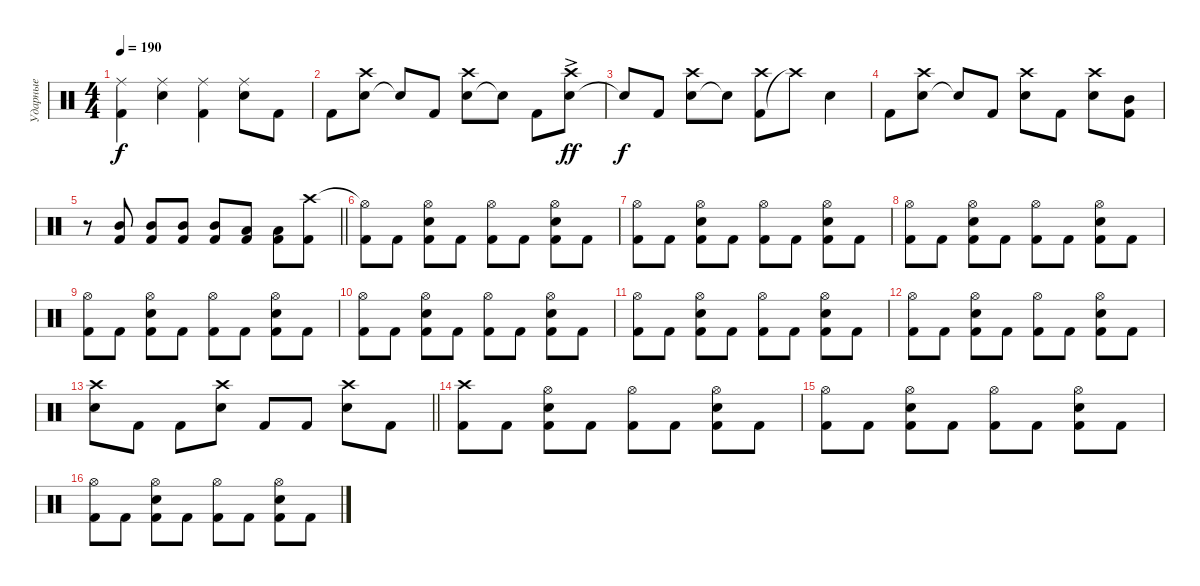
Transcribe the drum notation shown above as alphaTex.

\track ("Ударные" "Ударные") {instrument percussion}
\staff
\articulation defaults
\ts (4 4)
\tempo 190
\clef neutral
\ks c
("Kick (hit) 2" "Ride (middle)").4{dy f} ("Snare (hit) 2" "Ride (middle)").4 ("Kick (hit) 2" "Ride (middle)").4 ("Snare (hit) 2" "Ride (middle)").8 "Kick (hit) 2".8 |
"Kick (hit) 2".8 ("Snare (hit) 2" "Crash high (hit)").8 "Snare (hit)"{t}.8 "Kick (hit) 2".8 ("Snare (hit) 2" "Crash high (hit)").8 "Snare (hit)"{t}.8 "Kick (hit) 2".8 ("Snare (hit) 2" "Crash high (hit)"{ac}).8{dy ff} |
"Snare (hit)"{t}.8{dy f} "Kick (hit) 2".8 ("Snare (hit) 2" "Crash high (hit)").8 "Snare (hit)"{t}.8 ("Kick (hit) 2" "Crash high (hit)").8 "Crash high (hit)"{t}.8 "Snare (hit) 2".4 |
"Kick (hit) 2".8 ("Snare (hit) 2" "Crash high (hit)").8 "Snare (hit)"{t}.8 "Kick (hit) 2".8 ("Snare (hit) 2" "Crash high (hit)").8 "Kick (hit) 2".8 ("Snare (hit) 2" "Crash high (hit)").8 ("Kick (hit) 2" "Mid Tom (hit)").8 |
\barLineRight lightlight
r.8 ("Kick (hit) 2" "Mid Tom (hit)").8 ("Kick (hit) 2" "Mid Tom (hit)").8 ("Kick (hit) 2" "Mid Tom (hit)").8 ("Kick (hit) 2" "Mid Tom (hit)").8 ("Kick (hit) 2" "Low Tom (hit)").8 ("Kick (hit) 2" "Low Tom (hit)").8 ("Kick (hit) 2" "Crash high (hit)").8 |
("Kick (hit) 2" "Hi-Hat (open)"{t}).8 "Kick (hit) 2".8 ("Kick (hit) 2" "Snare (hit) 2" "Hi-Hat (open)").8 "Kick (hit) 2".8 ("Kick (hit) 2" "Hi-Hat (open)").8 "Kick (hit) 2".8 ("Kick (hit) 2" "Snare (hit) 2" "Hi-Hat (open)").8 "Kick (hit) 2".8 |
("Kick (hit) 2" "Hi-Hat (open)").8 "Kick (hit) 2".8 ("Kick (hit) 2" "Snare (hit) 2" "Hi-Hat (open)").8 "Kick (hit) 2".8 ("Kick (hit) 2" "Hi-Hat (open)").8 "Kick (hit) 2".8 ("Kick (hit) 2" "Snare (hit) 2" "Hi-Hat (open)").8 "Kick (hit) 2".8 |
("Kick (hit) 2" "Hi-Hat (open)").8 "Kick (hit) 2".8 ("Kick (hit) 2" "Snare (hit) 2" "Hi-Hat (open)").8 "Kick (hit) 2".8 ("Kick (hit) 2" "Hi-Hat (open)").8 "Kick (hit) 2".8 ("Kick (hit) 2" "Snare (hit) 2" "Hi-Hat (open)").8 "Kick (hit) 2".8 |
("Kick (hit) 2" "Hi-Hat (open)").8 "Kick (hit) 2".8 ("Kick (hit) 2" "Snare (hit) 2" "Hi-Hat (open)").8 "Kick (hit) 2".8 ("Kick (hit) 2" "Hi-Hat (open)").8 "Kick (hit) 2".8 ("Kick (hit) 2" "Snare (hit) 2" "Hi-Hat (open)").8 "Kick (hit) 2".8 |
("Kick (hit) 2" "Hi-Hat (open)").8 "Kick (hit) 2".8 ("Kick (hit) 2" "Snare (hit) 2" "Hi-Hat (open)").8 "Kick (hit) 2".8 ("Kick (hit) 2" "Hi-Hat (open)").8 "Kick (hit) 2".8 ("Kick (hit) 2" "Snare (hit) 2" "Hi-Hat (open)").8 "Kick (hit) 2".8 |
("Kick (hit) 2" "Hi-Hat (open)").8 "Kick (hit) 2".8 ("Kick (hit) 2" "Snare (hit) 2" "Hi-Hat (open)").8 "Kick (hit) 2".8 ("Kick (hit) 2" "Hi-Hat (open)").8 "Kick (hit) 2".8 ("Kick (hit) 2" "Snare (hit) 2" "Hi-Hat (open)").8 "Kick (hit) 2".8 |
("Kick (hit) 2" "Hi-Hat (open)").8 "Kick (hit) 2".8 ("Kick (hit) 2" "Snare (hit) 2" "Hi-Hat (open)").8 "Kick (hit) 2".8 ("Kick (hit) 2" "Hi-Hat (open)").8 "Kick (hit) 2".8 ("Kick (hit) 2" "Snare (hit) 2" "Hi-Hat (open)").8 "Kick (hit) 2".8 |
\barLineRight lightlight
("Snare (hit) 2" "Crash high (hit)").8 "Kick (hit) 2".8 "Kick (hit) 2".8 ("Snare (hit) 2" "Crash high (hit)").8 "Kick (hit) 2".8 "Kick (hit) 2".8 ("Snare (hit) 2" "Crash high (hit)").8 "Kick (hit) 2".8 |
("Kick (hit) 2" "Crash high (hit)").8 "Kick (hit) 2".8 ("Kick (hit) 2" "Snare (hit) 2" "Hi-Hat (open)").8 "Kick (hit) 2".8 ("Kick (hit) 2" "Hi-Hat (open)").8 "Kick (hit) 2".8 ("Kick (hit) 2" "Snare (hit) 2" "Hi-Hat (open)").8 "Kick (hit) 2".8 |
("Kick (hit) 2" "Hi-Hat (open)").8 "Kick (hit) 2".8 ("Kick (hit) 2" "Snare (hit) 2" "Hi-Hat (open)").8 "Kick (hit) 2".8 ("Kick (hit) 2" "Hi-Hat (open)").8 "Kick (hit) 2".8 ("Kick (hit) 2" "Snare (hit) 2" "Hi-Hat (open)").8 "Kick (hit) 2".8 |
("Kick (hit) 2" "Hi-Hat (open)").8 "Kick (hit) 2".8 ("Kick (hit) 2" "Snare (hit) 2" "Hi-Hat (open)").8 "Kick (hit) 2".8 ("Kick (hit) 2" "Hi-Hat (open)").8 "Kick (hit) 2".8 ("Kick (hit) 2" "Snare (hit) 2" "Hi-Hat (open)").8 "Kick (hit) 2".8
